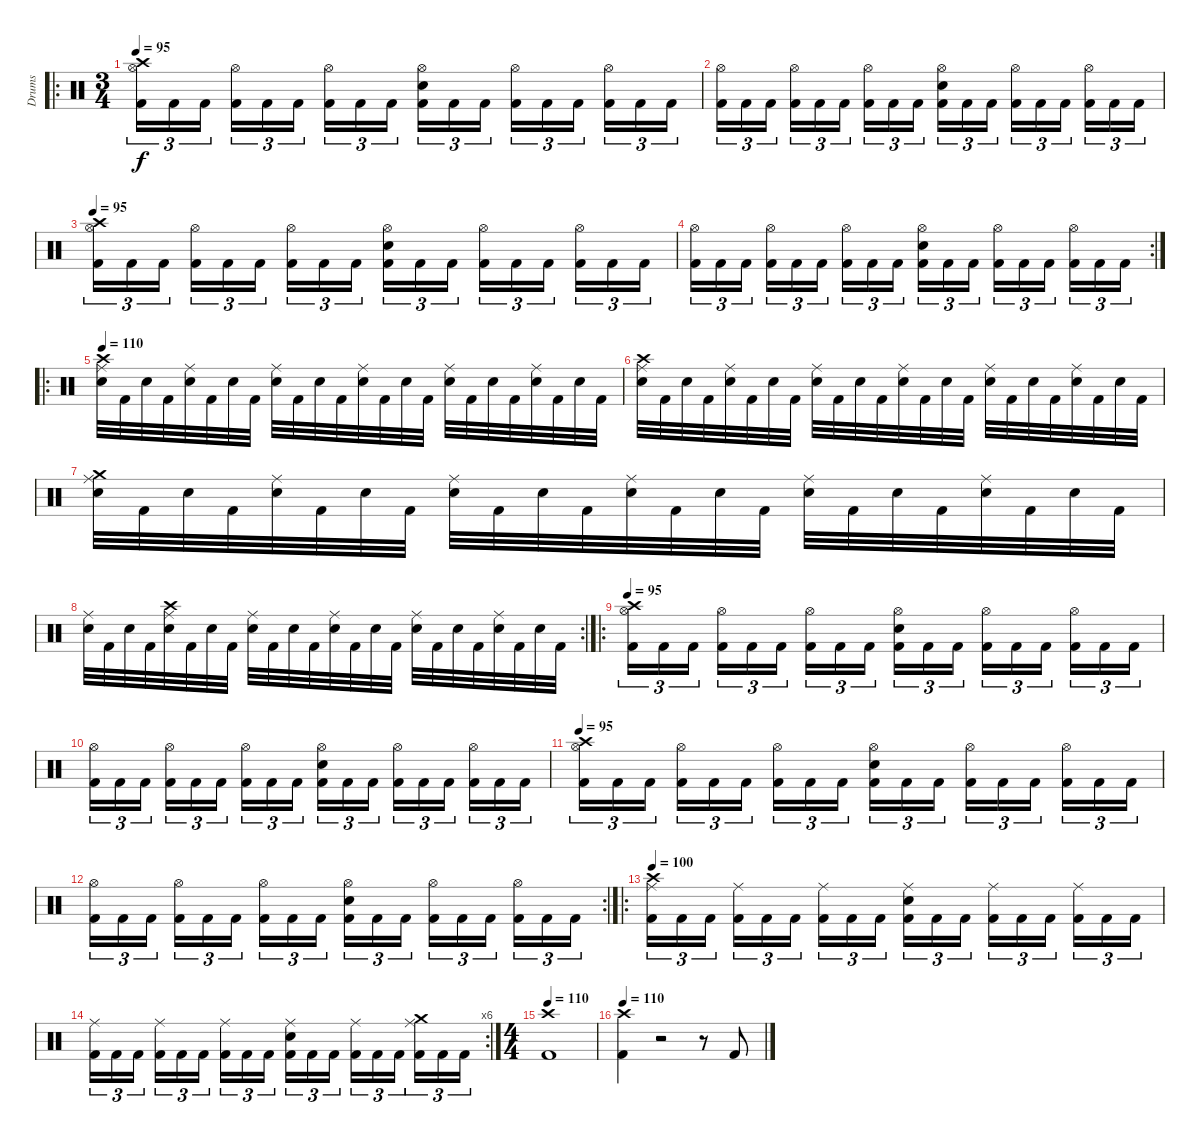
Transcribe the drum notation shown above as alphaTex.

\track ("Drums" "Drums") {instrument percussion}
\staff {score}
\articulation defaults
\ro
\ts (3 4)
\tempo 95
\clef neutral
\ks c
("Crash high (hit)" "Hi-Hat (open)" "Kick (hit) 2").16{tu (3 2) dy f} "Kick (hit) 2".16{tu (3 2)} "Kick (hit) 2".16{tu (3 2)} ("Hi-Hat (open)" "Kick (hit) 2").16{tu (3 2)} "Kick (hit) 2".16{tu (3 2)} "Kick (hit) 2".16{tu (3 2)} ("Hi-Hat (open)" "Kick (hit) 2").16{tu (3 2)} "Kick (hit) 2".16{tu (3 2)} "Kick (hit) 2".16{tu (3 2)} ("Hi-Hat (open)" "Electric Snare (hit)" "Kick (hit) 2").16{tu (3 2)} "Kick (hit) 2".16{tu (3 2)} "Kick (hit) 2".16{tu (3 2)} ("Hi-Hat (open)" "Kick (hit) 2").16{tu (3 2)} "Kick (hit) 2".16{tu (3 2)} "Kick (hit) 2".16{tu (3 2)} ("Hi-Hat (open)" "Kick (hit) 2").16{tu (3 2)} "Kick (hit) 2".16{tu (3 2)} "Kick (hit) 2".16{tu (3 2)} |
("Hi-Hat (open)" "Kick (hit) 2").16{tu (3 2)} "Kick (hit) 2".16{tu (3 2)} "Kick (hit) 2".16{tu (3 2)} ("Hi-Hat (open)" "Kick (hit) 2").16{tu (3 2)} "Kick (hit) 2".16{tu (3 2)} "Kick (hit) 2".16{tu (3 2)} ("Hi-Hat (open)" "Kick (hit) 2").16{tu (3 2)} "Kick (hit) 2".16{tu (3 2)} "Kick (hit) 2".16{tu (3 2)} ("Hi-Hat (open)" "Electric Snare (hit)" "Kick (hit) 2").16{tu (3 2)} "Kick (hit) 2".16{tu (3 2)} "Kick (hit) 2".16{tu (3 2)} ("Hi-Hat (open)" "Kick (hit) 2").16{tu (3 2)} "Kick (hit) 2".16{tu (3 2)} "Kick (hit) 2".16{tu (3 2)} ("Hi-Hat (open)" "Kick (hit) 2").16{tu (3 2)} "Kick (hit) 2".16{tu (3 2)} "Kick (hit) 2".16{tu (3 2)} |
\tempo 95
("Crash high (hit)" "Hi-Hat (open)" "Kick (hit) 2").16{tu (3 2)} "Kick (hit) 2".16{tu (3 2)} "Kick (hit) 2".16{tu (3 2)} ("Hi-Hat (open)" "Kick (hit) 2").16{tu (3 2)} "Kick (hit) 2".16{tu (3 2)} "Kick (hit) 2".16{tu (3 2)} ("Hi-Hat (open)" "Kick (hit) 2").16{tu (3 2)} "Kick (hit) 2".16{tu (3 2)} "Kick (hit) 2".16{tu (3 2)} ("Hi-Hat (open)" "Electric Snare (hit)" "Kick (hit) 2").16{tu (3 2)} "Kick (hit) 2".16{tu (3 2)} "Kick (hit) 2".16{tu (3 2)} ("Hi-Hat (open)" "Kick (hit) 2").16{tu (3 2)} "Kick (hit) 2".16{tu (3 2)} "Kick (hit) 2".16{tu (3 2)} ("Hi-Hat (open)" "Kick (hit) 2").16{tu (3 2)} "Kick (hit) 2".16{tu (3 2)} "Kick (hit) 2".16{tu (3 2)} |
\rc 2
("Hi-Hat (open)" "Kick (hit) 2").16{tu (3 2)} "Kick (hit) 2".16{tu (3 2)} "Kick (hit) 2".16{tu (3 2)} ("Hi-Hat (open)" "Kick (hit) 2").16{tu (3 2)} "Kick (hit) 2".16{tu (3 2)} "Kick (hit) 2".16{tu (3 2)} ("Hi-Hat (open)" "Kick (hit) 2").16{tu (3 2)} "Kick (hit) 2".16{tu (3 2)} "Kick (hit) 2".16{tu (3 2)} ("Hi-Hat (open)" "Electric Snare (hit)" "Kick (hit) 2").16{tu (3 2)} "Kick (hit) 2".16{tu (3 2)} "Kick (hit) 2".16{tu (3 2)} ("Hi-Hat (open)" "Kick (hit) 2").16{tu (3 2)} "Kick (hit) 2".16{tu (3 2)} "Kick (hit) 2".16{tu (3 2)} ("Hi-Hat (open)" "Kick (hit) 2").16{tu (3 2)} "Kick (hit) 2".16{tu (3 2)} "Kick (hit) 2".16{tu (3 2)} |
\ro
\tempo 110
("Crash high (hit)" "Ride (middle)" "Electric Snare (hit)").32 "Kick (hit) 2".32 "Electric Snare (hit)".32 "Kick (hit) 2".32 ("Ride (middle)" "Electric Snare (hit)").32 "Kick (hit) 2".32 "Electric Snare (hit)".32 "Kick (hit) 2".32 ("Ride (middle)" "Electric Snare (hit)").32 "Kick (hit) 2".32 "Electric Snare (hit)".32 "Kick (hit) 2".32 ("Ride (middle)" "Electric Snare (hit)").32 "Kick (hit) 2".32 "Electric Snare (hit)".32 "Kick (hit) 2".32 ("Ride (middle)" "Electric Snare (hit)").32 "Kick (hit) 2".32 "Electric Snare (hit)".32 "Kick (hit) 2".32 ("Ride (middle)" "Electric Snare (hit)").32 "Kick (hit) 2".32 "Electric Snare (hit)".32 "Kick (hit) 2".32 |
("Crash high (hit)" "Ride (middle)" "Electric Snare (hit)").32 "Kick (hit) 2".32 "Electric Snare (hit)".32 "Kick (hit) 2".32 ("Ride (middle)" "Electric Snare (hit)").32 "Kick (hit) 2".32 "Electric Snare (hit)".32 "Kick (hit) 2".32 ("Ride (middle)" "Electric Snare (hit)").32 "Kick (hit) 2".32 "Electric Snare (hit)".32 "Kick (hit) 2".32 ("Ride (middle)" "Electric Snare (hit)").32 "Kick (hit) 2".32 "Electric Snare (hit)".32 "Kick (hit) 2".32 ("Ride (middle)" "Electric Snare (hit)").32 "Kick (hit) 2".32 "Electric Snare (hit)".32 "Kick (hit) 2".32 ("Ride (middle)" "Electric Snare (hit)").32 "Kick (hit) 2".32 "Electric Snare (hit)".32 "Kick (hit) 2".32 |
("Crash medium (hit)" "Ride (middle)" "Electric Snare (hit)").32 "Kick (hit) 2".32 "Electric Snare (hit)".32 "Kick (hit) 2".32 ("Ride (middle)" "Electric Snare (hit)").32 "Kick (hit) 2".32 "Electric Snare (hit)".32 "Kick (hit) 2".32 ("Ride (middle)" "Electric Snare (hit)").32 "Kick (hit) 2".32 "Electric Snare (hit)".32 "Kick (hit) 2".32 ("Ride (middle)" "Electric Snare (hit)").32 "Kick (hit) 2".32 "Electric Snare (hit)".32 "Kick (hit) 2".32 ("Ride (middle)" "Electric Snare (hit)").32 "Kick (hit) 2".32 "Electric Snare (hit)".32 "Kick (hit) 2".32 ("Ride (middle)" "Electric Snare (hit)").32 "Kick (hit) 2".32 "Electric Snare (hit)".32 "Kick (hit) 2".32 |
\rc 2
("Ride (middle)" "Electric Snare (hit)").32 "Kick (hit) 2".32 "Electric Snare (hit)".32 "Kick (hit) 2".32 ("Crash high (hit)" "Ride (middle)" "Electric Snare (hit)").32 "Kick (hit) 2".32 "Electric Snare (hit)".32 "Kick (hit) 2".32 ("Ride (middle)" "Electric Snare (hit)").32 "Kick (hit) 2".32 "Electric Snare (hit)".32 "Kick (hit) 2".32 ("Ride (middle)" "Electric Snare (hit)").32 "Kick (hit) 2".32 "Electric Snare (hit)".32 "Kick (hit) 2".32 ("Ride (middle)" "Electric Snare (hit)").32 "Kick (hit) 2".32 "Electric Snare (hit)".32 "Kick (hit) 2".32 ("Ride (middle)" "Electric Snare (hit)").32 "Kick (hit) 2".32 "Electric Snare (hit)".32 "Kick (hit) 2".32 |
\ro
\tempo 95
("Crash high (hit)" "Hi-Hat (open)" "Kick (hit) 2").16{tu (3 2)} "Kick (hit) 2".16{tu (3 2)} "Kick (hit) 2".16{tu (3 2)} ("Hi-Hat (open)" "Kick (hit) 2").16{tu (3 2)} "Kick (hit) 2".16{tu (3 2)} "Kick (hit) 2".16{tu (3 2)} ("Hi-Hat (open)" "Kick (hit) 2").16{tu (3 2)} "Kick (hit) 2".16{tu (3 2)} "Kick (hit) 2".16{tu (3 2)} ("Hi-Hat (open)" "Electric Snare (hit)" "Kick (hit) 2").16{tu (3 2)} "Kick (hit) 2".16{tu (3 2)} "Kick (hit) 2".16{tu (3 2)} ("Hi-Hat (open)" "Kick (hit) 2").16{tu (3 2)} "Kick (hit) 2".16{tu (3 2)} "Kick (hit) 2".16{tu (3 2)} ("Hi-Hat (open)" "Kick (hit) 2").16{tu (3 2)} "Kick (hit) 2".16{tu (3 2)} "Kick (hit) 2".16{tu (3 2)} |
("Hi-Hat (open)" "Kick (hit) 2").16{tu (3 2)} "Kick (hit) 2".16{tu (3 2)} "Kick (hit) 2".16{tu (3 2)} ("Hi-Hat (open)" "Kick (hit) 2").16{tu (3 2)} "Kick (hit) 2".16{tu (3 2)} "Kick (hit) 2".16{tu (3 2)} ("Hi-Hat (open)" "Kick (hit) 2").16{tu (3 2)} "Kick (hit) 2".16{tu (3 2)} "Kick (hit) 2".16{tu (3 2)} ("Hi-Hat (open)" "Electric Snare (hit)" "Kick (hit) 2").16{tu (3 2)} "Kick (hit) 2".16{tu (3 2)} "Kick (hit) 2".16{tu (3 2)} ("Hi-Hat (open)" "Kick (hit) 2").16{tu (3 2)} "Kick (hit) 2".16{tu (3 2)} "Kick (hit) 2".16{tu (3 2)} ("Hi-Hat (open)" "Kick (hit) 2").16{tu (3 2)} "Kick (hit) 2".16{tu (3 2)} "Kick (hit) 2".16{tu (3 2)} |
\tempo 95
("Crash high (hit)" "Hi-Hat (open)" "Kick (hit) 2").16{tu (3 2)} "Kick (hit) 2".16{tu (3 2)} "Kick (hit) 2".16{tu (3 2)} ("Hi-Hat (open)" "Kick (hit) 2").16{tu (3 2)} "Kick (hit) 2".16{tu (3 2)} "Kick (hit) 2".16{tu (3 2)} ("Hi-Hat (open)" "Kick (hit) 2").16{tu (3 2)} "Kick (hit) 2".16{tu (3 2)} "Kick (hit) 2".16{tu (3 2)} ("Hi-Hat (open)" "Electric Snare (hit)" "Kick (hit) 2").16{tu (3 2)} "Kick (hit) 2".16{tu (3 2)} "Kick (hit) 2".16{tu (3 2)} ("Hi-Hat (open)" "Kick (hit) 2").16{tu (3 2)} "Kick (hit) 2".16{tu (3 2)} "Kick (hit) 2".16{tu (3 2)} ("Hi-Hat (open)" "Kick (hit) 2").16{tu (3 2)} "Kick (hit) 2".16{tu (3 2)} "Kick (hit) 2".16{tu (3 2)} |
\rc 2
("Hi-Hat (open)" "Kick (hit) 2").16{tu (3 2)} "Kick (hit) 2".16{tu (3 2)} "Kick (hit) 2".16{tu (3 2)} ("Hi-Hat (open)" "Kick (hit) 2").16{tu (3 2)} "Kick (hit) 2".16{tu (3 2)} "Kick (hit) 2".16{tu (3 2)} ("Hi-Hat (open)" "Kick (hit) 2").16{tu (3 2)} "Kick (hit) 2".16{tu (3 2)} "Kick (hit) 2".16{tu (3 2)} ("Hi-Hat (open)" "Electric Snare (hit)" "Kick (hit) 2").16{tu (3 2)} "Kick (hit) 2".16{tu (3 2)} "Kick (hit) 2".16{tu (3 2)} ("Hi-Hat (open)" "Kick (hit) 2").16{tu (3 2)} "Kick (hit) 2".16{tu (3 2)} "Kick (hit) 2".16{tu (3 2)} ("Hi-Hat (open)" "Kick (hit) 2").16{tu (3 2)} "Kick (hit) 2".16{tu (3 2)} "Kick (hit) 2".16{tu (3 2)} |
\ro
\tempo 100
("Crash high (hit)" "Ride (middle)" "Kick (hit) 2").16{tu (3 2)} "Kick (hit) 2".16{tu (3 2)} "Kick (hit) 2".16{tu (3 2)} ("Ride (middle)" "Kick (hit) 2").16{tu (3 2)} "Kick (hit) 2".16{tu (3 2)} "Kick (hit) 2".16{tu (3 2)} ("Ride (middle)" "Kick (hit) 2").16{tu (3 2)} "Kick (hit) 2".16{tu (3 2)} "Kick (hit) 2".16{tu (3 2)} ("Ride (middle)" "Electric Snare (hit)" "Kick (hit) 2").16{tu (3 2)} "Kick (hit) 2".16{tu (3 2)} "Kick (hit) 2".16{tu (3 2)} ("Ride (middle)" "Kick (hit) 2").16{tu (3 2)} "Kick (hit) 2".16{tu (3 2)} "Kick (hit) 2".16{tu (3 2)} ("Ride (middle)" "Kick (hit) 2").16{tu (3 2)} "Kick (hit) 2".16{tu (3 2)} "Kick (hit) 2".16{tu (3 2)} |
\rc 6
("Ride (middle)" "Kick (hit) 2").16{tu (3 2)} "Kick (hit) 2".16{tu (3 2)} "Kick (hit) 2".16{tu (3 2)} ("Ride (middle)" "Kick (hit) 2").16{tu (3 2)} "Kick (hit) 2".16{tu (3 2)} "Kick (hit) 2".16{tu (3 2)} ("Ride (middle)" "Kick (hit) 2").16{tu (3 2)} "Kick (hit) 2".16{tu (3 2)} "Kick (hit) 2".16{tu (3 2)} ("Ride (middle)" "Electric Snare (hit)" "Kick (hit) 2").16{tu (3 2)} "Kick (hit) 2".16{tu (3 2)} "Kick (hit) 2".16{tu (3 2)} ("Ride (middle)" "Kick (hit) 2").16{tu (3 2)} "Kick (hit) 2".16{tu (3 2)} "Kick (hit) 2".16{tu (3 2)} ("Crash medium (hit)" "Ride (middle)" "Kick (hit) 2").16{tu (3 2)} "Kick (hit) 2".16{tu (3 2)} "Kick (hit) 2".16{tu (3 2)} |
\ts (4 4)
\tempo 110
("Crash high (hit)" "Kick (hit) 2").1 |
\tempo 110
("Crash high (hit)" "Kick (hit) 2").4 r.2 r.8 "Kick (hit) 2".8
